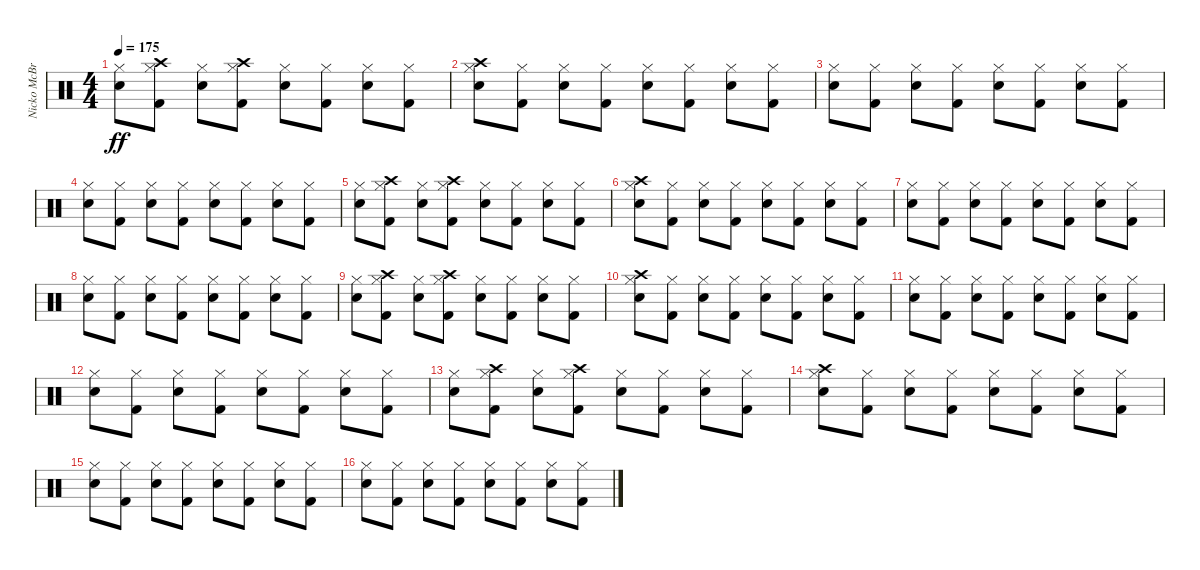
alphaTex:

\track ("Nicko McBrain" "Nicko McBr") {instrument percussion}
\staff {score}
\articulation defaults
\ts (4 4)
\tempo 175
\clef neutral
\ks c
("Snare (hit) 2" "Hi-Hat (closed)").8{dy ff} ("Kick (hit) 2" "Hi-Hat (closed)" "Crash high (hit)").8 ("Snare (hit) 2" "Hi-Hat (closed)").8 ("Kick (hit) 2" "Hi-Hat (closed)" "Crash high (hit)").8 ("Snare (hit) 2" "Hi-Hat (closed)").8 ("Kick (hit) 2" "Hi-Hat (closed)").8 ("Snare (hit) 2" "Hi-Hat (closed)").8 ("Kick (hit) 2" "Hi-Hat (closed)").8 |
("Snare (hit) 2" "Hi-Hat (closed)" "Crash high (hit)").8 ("Kick (hit) 2" "Hi-Hat (closed)").8 ("Snare (hit) 2" "Hi-Hat (closed)").8 ("Kick (hit) 2" "Hi-Hat (closed)").8 ("Snare (hit) 2" "Hi-Hat (closed)").8 ("Kick (hit) 2" "Hi-Hat (closed)").8 ("Snare (hit) 2" "Hi-Hat (closed)").8 ("Kick (hit) 2" "Hi-Hat (closed)").8 |
("Snare (hit) 2" "Hi-Hat (closed)").8 ("Kick (hit) 2" "Hi-Hat (closed)").8 ("Snare (hit) 2" "Hi-Hat (closed)").8 ("Kick (hit) 2" "Hi-Hat (closed)").8 ("Snare (hit) 2" "Hi-Hat (closed)").8 ("Kick (hit) 2" "Hi-Hat (closed)").8 ("Snare (hit) 2" "Hi-Hat (closed)").8 ("Kick (hit) 2" "Hi-Hat (closed)").8 |
("Snare (hit) 2" "Hi-Hat (closed)").8 ("Kick (hit) 2" "Hi-Hat (closed)").8 ("Snare (hit) 2" "Hi-Hat (closed)").8 ("Kick (hit) 2" "Hi-Hat (closed)").8 ("Snare (hit) 2" "Hi-Hat (closed)").8 ("Kick (hit) 2" "Hi-Hat (closed)").8 ("Snare (hit) 2" "Hi-Hat (closed)").8 ("Kick (hit) 2" "Hi-Hat (closed)").8 |
("Snare (hit) 2" "Hi-Hat (closed)").8 ("Kick (hit) 2" "Hi-Hat (closed)" "Crash high (hit)").8 ("Snare (hit) 2" "Hi-Hat (closed)").8 ("Kick (hit) 2" "Hi-Hat (closed)" "Crash high (hit)").8 ("Snare (hit) 2" "Hi-Hat (closed)").8 ("Kick (hit) 2" "Hi-Hat (closed)").8 ("Snare (hit) 2" "Hi-Hat (closed)").8 ("Kick (hit) 2" "Hi-Hat (closed)").8 |
("Snare (hit) 2" "Hi-Hat (closed)" "Crash high (hit)").8 ("Kick (hit) 2" "Hi-Hat (closed)").8 ("Snare (hit) 2" "Hi-Hat (closed)").8 ("Kick (hit) 2" "Hi-Hat (closed)").8 ("Snare (hit) 2" "Hi-Hat (closed)").8 ("Kick (hit) 2" "Hi-Hat (closed)").8 ("Snare (hit) 2" "Hi-Hat (closed)").8 ("Kick (hit) 2" "Hi-Hat (closed)").8 |
("Snare (hit) 2" "Hi-Hat (closed)").8 ("Kick (hit) 2" "Hi-Hat (closed)").8 ("Snare (hit) 2" "Hi-Hat (closed)").8 ("Kick (hit) 2" "Hi-Hat (closed)").8 ("Snare (hit) 2" "Hi-Hat (closed)").8 ("Kick (hit) 2" "Hi-Hat (closed)").8 ("Snare (hit) 2" "Hi-Hat (closed)").8 ("Kick (hit) 2" "Hi-Hat (closed)").8 |
("Snare (hit) 2" "Hi-Hat (closed)").8 ("Kick (hit) 2" "Hi-Hat (closed)").8 ("Snare (hit) 2" "Hi-Hat (closed)").8 ("Kick (hit) 2" "Hi-Hat (closed)").8 ("Snare (hit) 2" "Hi-Hat (closed)").8 ("Kick (hit) 2" "Hi-Hat (closed)").8 ("Snare (hit) 2" "Hi-Hat (closed)").8 ("Kick (hit) 2" "Hi-Hat (closed)").8 |
("Snare (hit) 2" "Hi-Hat (closed)").8 ("Kick (hit) 2" "Hi-Hat (closed)" "Crash high (hit)").8 ("Snare (hit) 2" "Hi-Hat (closed)").8 ("Kick (hit) 2" "Hi-Hat (closed)" "Crash high (hit)").8 ("Snare (hit) 2" "Hi-Hat (closed)").8 ("Kick (hit) 2" "Hi-Hat (closed)").8 ("Snare (hit) 2" "Hi-Hat (closed)").8 ("Kick (hit) 2" "Hi-Hat (closed)").8 |
("Snare (hit) 2" "Hi-Hat (closed)" "Crash high (hit)").8 ("Kick (hit) 2" "Hi-Hat (closed)").8 ("Snare (hit) 2" "Hi-Hat (closed)").8 ("Kick (hit) 2" "Hi-Hat (closed)").8 ("Snare (hit) 2" "Hi-Hat (closed)").8 ("Kick (hit) 2" "Hi-Hat (closed)").8 ("Snare (hit) 2" "Hi-Hat (closed)").8 ("Kick (hit) 2" "Hi-Hat (closed)").8 |
("Snare (hit) 2" "Hi-Hat (closed)").8 ("Kick (hit) 2" "Hi-Hat (closed)").8 ("Snare (hit) 2" "Hi-Hat (closed)").8 ("Kick (hit) 2" "Hi-Hat (closed)").8 ("Snare (hit) 2" "Hi-Hat (closed)").8 ("Kick (hit) 2" "Hi-Hat (closed)").8 ("Snare (hit) 2" "Hi-Hat (closed)").8 ("Kick (hit) 2" "Hi-Hat (closed)").8 |
("Snare (hit) 2" "Hi-Hat (closed)").8 ("Kick (hit) 2" "Hi-Hat (closed)").8 ("Snare (hit) 2" "Hi-Hat (closed)").8 ("Kick (hit) 2" "Hi-Hat (closed)").8 ("Snare (hit) 2" "Hi-Hat (closed)").8 ("Kick (hit) 2" "Hi-Hat (closed)").8 ("Snare (hit) 2" "Hi-Hat (closed)").8 ("Kick (hit) 2" "Hi-Hat (closed)").8 |
("Snare (hit) 2" "Hi-Hat (closed)").8 ("Kick (hit) 2" "Hi-Hat (closed)" "Crash high (hit)").8 ("Snare (hit) 2" "Hi-Hat (closed)").8 ("Kick (hit) 2" "Hi-Hat (closed)" "Crash high (hit)").8 ("Snare (hit) 2" "Hi-Hat (closed)").8 ("Kick (hit) 2" "Hi-Hat (closed)").8 ("Snare (hit) 2" "Hi-Hat (closed)").8 ("Kick (hit) 2" "Hi-Hat (closed)").8 |
("Snare (hit) 2" "Hi-Hat (closed)" "Crash high (hit)").8 ("Kick (hit) 2" "Hi-Hat (closed)").8 ("Snare (hit) 2" "Hi-Hat (closed)").8 ("Kick (hit) 2" "Hi-Hat (closed)").8 ("Snare (hit) 2" "Hi-Hat (closed)").8 ("Kick (hit) 2" "Hi-Hat (closed)").8 ("Snare (hit) 2" "Hi-Hat (closed)").8 ("Kick (hit) 2" "Hi-Hat (closed)").8 |
("Snare (hit) 2" "Hi-Hat (closed)").8 ("Kick (hit) 2" "Hi-Hat (closed)").8 ("Snare (hit) 2" "Hi-Hat (closed)").8 ("Kick (hit) 2" "Hi-Hat (closed)").8 ("Snare (hit) 2" "Hi-Hat (closed)").8 ("Kick (hit) 2" "Hi-Hat (closed)").8 ("Snare (hit) 2" "Hi-Hat (closed)").8 ("Kick (hit) 2" "Hi-Hat (closed)").8 |
("Snare (hit) 2" "Hi-Hat (closed)").8 ("Kick (hit) 2" "Hi-Hat (closed)").8 ("Snare (hit) 2" "Hi-Hat (closed)").8 ("Kick (hit) 2" "Hi-Hat (closed)").8 ("Snare (hit) 2" "Hi-Hat (closed)").8 ("Kick (hit) 2" "Hi-Hat (closed)").8 ("Snare (hit) 2" "Hi-Hat (closed)").8 ("Kick (hit) 2" "Hi-Hat (closed)").8
